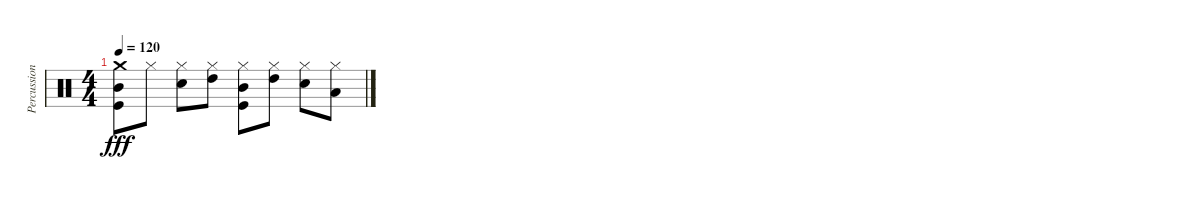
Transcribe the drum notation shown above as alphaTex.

\track ("Percussion" "Percussion") {instrument percussion}
\staff {score}
\articulation defaults
\ts (4 4)
\tempo 120
\clef neutral
\ks c
("Crash medium (hit)" "Mid Tom (hit)" "Kick (hit)").8{dy fff} "Hi-Hat (closed)".8 ("Hi-Hat (closed)" "Electric Snare (hit)").8 ("Hi-Hat (closed)" "High Tom (hit)").8 ("Hi-Hat (closed)" "Mid Tom (hit)" "Kick (hit)").8 ("Hi-Hat (closed)" "High Tom (hit)").8 ("Hi-Hat (closed)" "Electric Snare (hit)").8 ("Hi-Hat (closed)" "Low Tom (hit)").8
